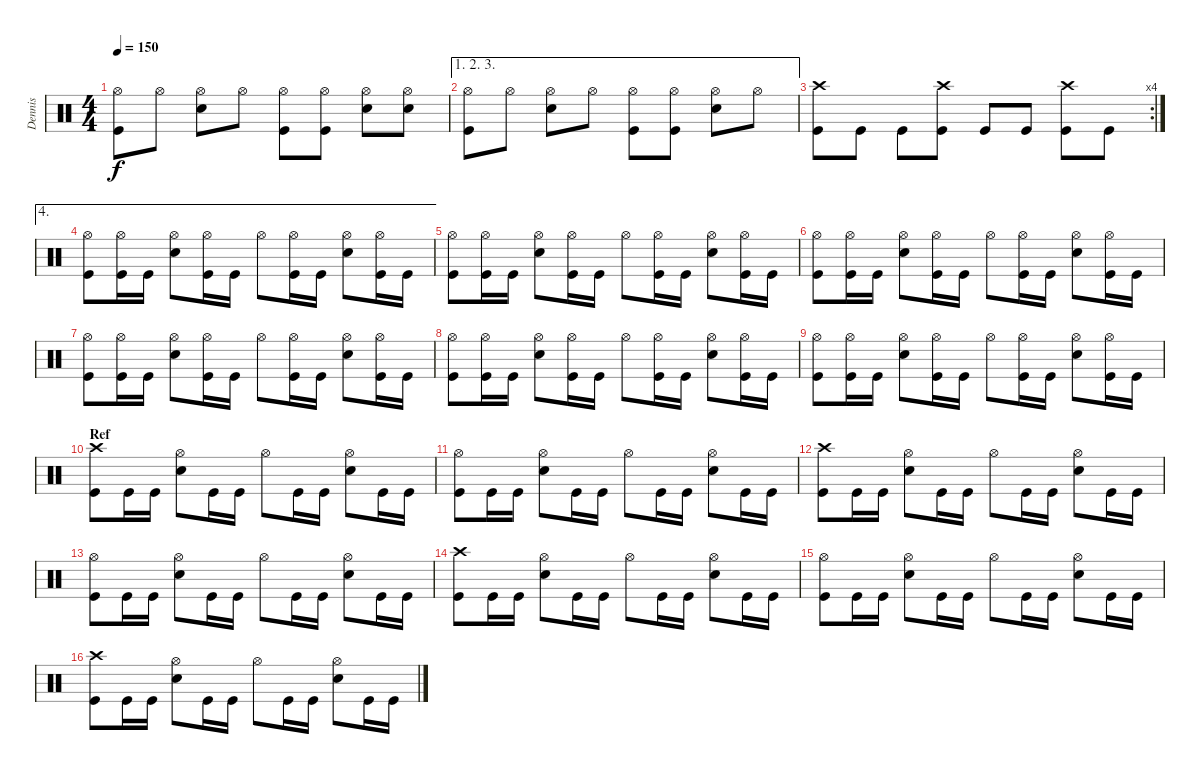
\track ("Dennis" "Dennis") {instrument percussion}
\staff {score}
\articulation defaults
\ts (4 4)
\tempo 150
\clef neutral
\ks c
("Hi-Hat (open)" "Kick (hit)").8{dy f} "Hi-Hat (open)".8 ("Hi-Hat (open)" "Snare (hit) 2").8 "Hi-Hat (open)".8 ("Hi-Hat (open)" "Kick (hit)").8 ("Hi-Hat (open)" "Kick (hit)").8 ("Hi-Hat (open)" "Snare (hit) 2").8 ("Hi-Hat (open)" "Snare (hit) 2").8 |
\ae (1 2 3)
("Hi-Hat (open)" "Kick (hit)").8 "Hi-Hat (open)".8 ("Hi-Hat (open)" "Snare (hit) 2").8 "Hi-Hat (open)".8 ("Hi-Hat (open)" "Kick (hit)").8 ("Hi-Hat (open)" "Kick (hit)").8 ("Hi-Hat (open)" "Snare (hit) 2").8 "Hi-Hat (open)".8 |
\rc 4
("Crash high (hit)" "Kick (hit)").8 "Kick (hit)".8 "Kick (hit)".8 ("Crash high (hit)" "Kick (hit)").8 "Kick (hit)".8 "Kick (hit)".8 ("Crash high (hit)" "Kick (hit)").8 "Kick (hit)".8 |
\ae 4
("Hi-Hat (open)" "Kick (hit)").8 ("Hi-Hat (open)" "Kick (hit)").16 "Kick (hit)".16 ("Hi-Hat (open)" "Snare (hit) 2").8 ("Hi-Hat (open)" "Kick (hit)").16 "Kick (hit)".16 "Hi-Hat (open)".8 ("Hi-Hat (open)" "Kick (hit)").16 "Kick (hit)".16 ("Hi-Hat (open)" "Snare (hit) 2").8 ("Hi-Hat (open)" "Kick (hit)").16 "Kick (hit)".16 |
("Hi-Hat (open)" "Kick (hit)").8 ("Hi-Hat (open)" "Kick (hit)").16 "Kick (hit)".16 ("Hi-Hat (open)" "Snare (hit) 2").8 ("Hi-Hat (open)" "Kick (hit)").16 "Kick (hit)".16 "Hi-Hat (open)".8 ("Hi-Hat (open)" "Kick (hit)").16 "Kick (hit)".16 ("Hi-Hat (open)" "Snare (hit) 2").8 ("Hi-Hat (open)" "Kick (hit)").16 "Kick (hit)".16 |
("Hi-Hat (open)" "Kick (hit)").8 ("Hi-Hat (open)" "Kick (hit)").16 "Kick (hit)".16 ("Hi-Hat (open)" "Snare (hit) 2").8 ("Hi-Hat (open)" "Kick (hit)").16 "Kick (hit)".16 "Hi-Hat (open)".8 ("Hi-Hat (open)" "Kick (hit)").16 "Kick (hit)".16 ("Hi-Hat (open)" "Snare (hit) 2").8 ("Hi-Hat (open)" "Kick (hit)").16 "Kick (hit)".16 |
("Hi-Hat (open)" "Kick (hit)").8 ("Hi-Hat (open)" "Kick (hit)").16 "Kick (hit)".16 ("Hi-Hat (open)" "Snare (hit) 2").8 ("Hi-Hat (open)" "Kick (hit)").16 "Kick (hit)".16 "Hi-Hat (open)".8 ("Hi-Hat (open)" "Kick (hit)").16 "Kick (hit)".16 ("Hi-Hat (open)" "Snare (hit) 2").8 ("Hi-Hat (open)" "Kick (hit)").16 "Kick (hit)".16 |
("Hi-Hat (open)" "Kick (hit)").8 ("Hi-Hat (open)" "Kick (hit)").16 "Kick (hit)".16 ("Hi-Hat (open)" "Snare (hit) 2").8 ("Hi-Hat (open)" "Kick (hit)").16 "Kick (hit)".16 "Hi-Hat (open)".8 ("Hi-Hat (open)" "Kick (hit)").16 "Kick (hit)".16 ("Hi-Hat (open)" "Snare (hit) 2").8 ("Hi-Hat (open)" "Kick (hit)").16 "Kick (hit)".16 |
("Hi-Hat (open)" "Kick (hit)").8 ("Hi-Hat (open)" "Kick (hit)").16 "Kick (hit)".16 ("Hi-Hat (open)" "Snare (hit) 2").8 ("Hi-Hat (open)" "Kick (hit)").16 "Kick (hit)".16 "Hi-Hat (open)".8 ("Hi-Hat (open)" "Kick (hit)").16 "Kick (hit)".16 ("Hi-Hat (open)" "Snare (hit) 2").8 ("Hi-Hat (open)" "Kick (hit)").16 "Kick (hit)".16 |
\section ("" "Ref")
("Crash high (hit)" "Kick (hit)").8 "Kick (hit)".16 "Kick (hit)".16 ("Hi-Hat (open)" "Snare (hit) 2").8 "Kick (hit)".16 "Kick (hit)".16 "Hi-Hat (open)".8 "Kick (hit)".16 "Kick (hit)".16 ("Hi-Hat (open)" "Snare (hit) 2").8 "Kick (hit)".16 "Kick (hit)".16 |
("Hi-Hat (open)" "Kick (hit)").8 "Kick (hit)".16 "Kick (hit)".16 ("Hi-Hat (open)" "Snare (hit) 2").8 "Kick (hit)".16 "Kick (hit)".16 "Hi-Hat (open)".8 "Kick (hit)".16 "Kick (hit)".16 ("Hi-Hat (open)" "Snare (hit) 2").8 "Kick (hit)".16 "Kick (hit)".16 |
("Crash high (hit)" "Kick (hit)").8 "Kick (hit)".16 "Kick (hit)".16 ("Hi-Hat (open)" "Snare (hit) 2").8 "Kick (hit)".16 "Kick (hit)".16 "Hi-Hat (open)".8 "Kick (hit)".16 "Kick (hit)".16 ("Hi-Hat (open)" "Snare (hit) 2").8 "Kick (hit)".16 "Kick (hit)".16 |
("Hi-Hat (open)" "Kick (hit)").8 "Kick (hit)".16 "Kick (hit)".16 ("Hi-Hat (open)" "Snare (hit) 2").8 "Kick (hit)".16 "Kick (hit)".16 "Hi-Hat (open)".8 "Kick (hit)".16 "Kick (hit)".16 ("Hi-Hat (open)" "Snare (hit) 2").8 "Kick (hit)".16 "Kick (hit)".16 |
("Crash high (hit)" "Kick (hit)").8 "Kick (hit)".16 "Kick (hit)".16 ("Hi-Hat (open)" "Snare (hit) 2").8 "Kick (hit)".16 "Kick (hit)".16 "Hi-Hat (open)".8 "Kick (hit)".16 "Kick (hit)".16 ("Hi-Hat (open)" "Snare (hit) 2").8 "Kick (hit)".16 "Kick (hit)".16 |
("Hi-Hat (open)" "Kick (hit)").8 "Kick (hit)".16 "Kick (hit)".16 ("Hi-Hat (open)" "Snare (hit) 2").8 "Kick (hit)".16 "Kick (hit)".16 "Hi-Hat (open)".8 "Kick (hit)".16 "Kick (hit)".16 ("Hi-Hat (open)" "Snare (hit) 2").8 "Kick (hit)".16 "Kick (hit)".16 |
("Crash high (hit)" "Kick (hit)").8 "Kick (hit)".16 "Kick (hit)".16 ("Hi-Hat (open)" "Snare (hit) 2").8 "Kick (hit)".16 "Kick (hit)".16 "Hi-Hat (open)".8 "Kick (hit)".16 "Kick (hit)".16 ("Hi-Hat (open)" "Snare (hit) 2").8 "Kick (hit)".16 "Kick (hit)".16
